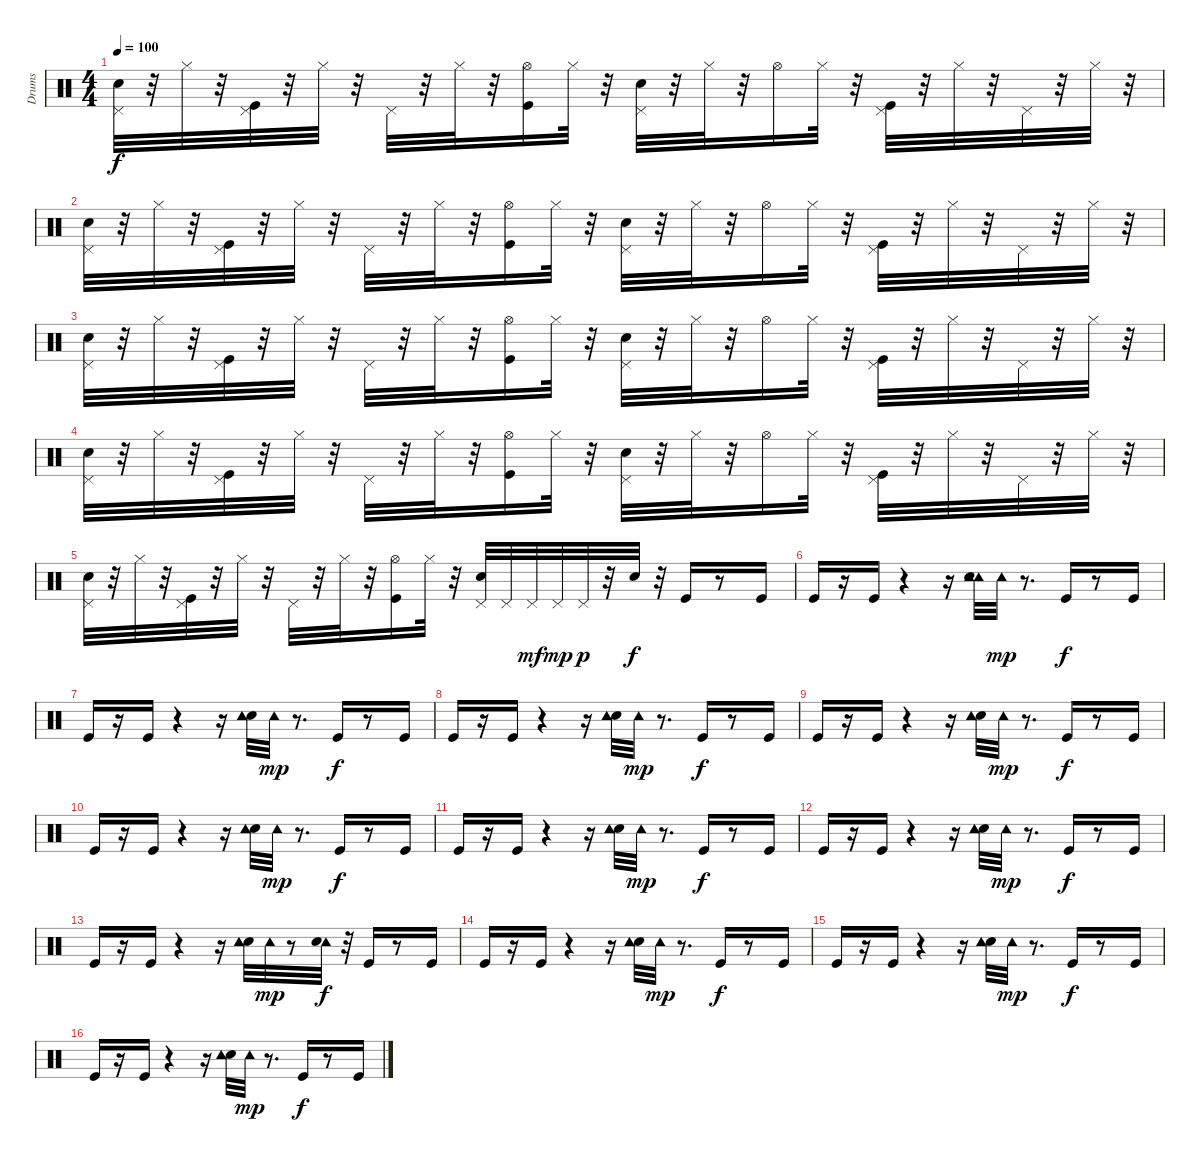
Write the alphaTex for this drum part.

\track ("Drums" "Drums") {instrument percussion}
\staff {score}
\articulation defaults
\ts (4 4)
\tempo 100
\clef neutral
\ks c
("Metronome (bell)" "Pedal Hi-Hat (hit)").32{dy f} r.32 "Hi-Hat (closed)".32 r.32 ("Pedal Hi-Hat (hit)" "Kick (hit)").32 r.32 "Hi-Hat (closed)".32 r.32 "Pedal Hi-Hat (hit)".32 r.32 "Hi-Hat (closed)".32 r.32 ("Kick (hit)" "Hi-Hat (open)").16 "Hi-Hat (closed)".32 r.32 ("Metronome (bell)" "Pedal Hi-Hat (hit)").32 r.32 "Hi-Hat (closed)".32 r.32 "Hi-Hat (open)".16 "Hi-Hat (closed)".32 r.32 ("Kick (hit)" "Pedal Hi-Hat (hit)").32 r.32 "Hi-Hat (closed)".32 r.32 "Pedal Hi-Hat (hit)".32 r.32 "Hi-Hat (closed)".32 r.32 |
("Pedal Hi-Hat (hit)" "Metronome (bell)").32 r.32 "Hi-Hat (closed)".32 r.32 ("Kick (hit)" "Pedal Hi-Hat (hit)").32 r.32 "Hi-Hat (closed)".32 r.32 "Pedal Hi-Hat (hit)".32 r.32 "Hi-Hat (closed)".32 r.32 ("Kick (hit)" "Hi-Hat (open)").16 "Hi-Hat (closed)".32 r.32 ("Pedal Hi-Hat (hit)" "Metronome (bell)").32 r.32 "Hi-Hat (closed)".32 r.32 "Hi-Hat (open)".16 "Hi-Hat (closed)".32 r.32 ("Pedal Hi-Hat (hit)" "Kick (hit)").32 r.32 "Hi-Hat (closed)".32 r.32 "Pedal Hi-Hat (hit)".32 r.32 "Hi-Hat (closed)".32 r.32 |
("Metronome (bell)" "Pedal Hi-Hat (hit)").32 r.32 "Hi-Hat (closed)".32 r.32 ("Kick (hit)" "Pedal Hi-Hat (hit)").32 r.32 "Hi-Hat (closed)".32 r.32 "Pedal Hi-Hat (hit)".32 r.32 "Hi-Hat (closed)".32 r.32 ("Kick (hit)" "Hi-Hat (open)").16 "Hi-Hat (closed)".32 r.32 ("Pedal Hi-Hat (hit)" "Metronome (bell)").32 r.32 "Hi-Hat (closed)".32 r.32 "Hi-Hat (open)".16 "Hi-Hat (closed)".32 r.32 ("Pedal Hi-Hat (hit)" "Kick (hit)").32 r.32 "Hi-Hat (closed)".32 r.32 "Pedal Hi-Hat (hit)".32 r.32 "Hi-Hat (closed)".32 r.32 |
("Pedal Hi-Hat (hit)" "Metronome (bell)").32 r.32 "Hi-Hat (closed)".32 r.32 ("Kick (hit)" "Pedal Hi-Hat (hit)").32 r.32 "Hi-Hat (closed)".32 r.32 "Pedal Hi-Hat (hit)".32 r.32 "Hi-Hat (closed)".32 r.32 ("Hi-Hat (open)" "Kick (hit)").16 "Hi-Hat (closed)".32 r.32 ("Metronome (bell)" "Pedal Hi-Hat (hit)").32 r.32 "Hi-Hat (closed)".32 r.32 "Hi-Hat (open)".16 "Hi-Hat (closed)".32 r.32 ("Kick (hit)" "Pedal Hi-Hat (hit)").32 r.32 "Hi-Hat (closed)".32 r.32 "Pedal Hi-Hat (hit)".32 r.32 "Hi-Hat (closed)".32 r.32 |
("Metronome (bell)" "Pedal Hi-Hat (hit)").32 r.32 "Hi-Hat (closed)".32 r.32 ("Kick (hit)" "Pedal Hi-Hat (hit)").32 r.32 "Hi-Hat (closed)".32 r.32 "Pedal Hi-Hat (hit)".32 r.32 "Hi-Hat (closed)".32 r.32 ("Hi-Hat (open)" "Kick (hit)").16 "Hi-Hat (closed)".32 r.32 ("Metronome (bell)" "Pedal Hi-Hat (hit)").32 "Pedal Hi-Hat (hit)".32 "Pedal Hi-Hat (hit)".32{dy mf} "Pedal Hi-Hat (hit)".32{dy mp} "Pedal Hi-Hat (hit)".32{dy p} r.32 "Metronome (bell)".32{dy f} r.32 "Kick (hit)".16 r.8 "Kick (hit)".16 |
"Kick (hit)".16 r.16 "Kick (hit)".16 r.4 r.16 ("Tambourine (hit)" "Metronome (bell)" "Tambourine (hit)").32 "Tambourine (hit)".32{dy mp} r.8{d} "Kick (hit)".16{dy f} r.8 "Kick (hit)".16 |
"Kick (hit)".16 r.16 "Kick (hit)".16 r.4 r.16 ("Metronome (bell)" "Tambourine (hit)" "Tambourine (hit)").32 "Tambourine (hit)".32{dy mp} r.8{d} "Kick (hit)".16{dy f} r.8 "Kick (hit)".16 |
"Kick (hit)".16 r.16 "Kick (hit)".16 r.4 r.16 ("Metronome (bell)" "Tambourine (hit)" "Tambourine (hit)").32 "Tambourine (hit)".32{dy mp} r.8{d} "Kick (hit)".16{dy f} r.8 "Kick (hit)".16 |
"Kick (hit)".16 r.16 "Kick (hit)".16 r.4 r.16 ("Metronome (bell)" "Tambourine (hit)" "Tambourine (hit)").32 "Tambourine (hit)".32{dy mp} r.8{d} "Kick (hit)".16{dy f} r.8 "Kick (hit)".16 |
"Kick (hit)".16 r.16 "Kick (hit)".16 r.4 r.16 ("Metronome (bell)" "Tambourine (hit)" "Tambourine (hit)").32 "Tambourine (hit)".32{dy mp} r.8{d} "Kick (hit)".16{dy f} r.8 "Kick (hit)".16 |
"Kick (hit)".16 r.16 "Kick (hit)".16 r.4 r.16 ("Metronome (bell)" "Tambourine (hit)" "Tambourine (hit)").32 "Tambourine (hit)".32{dy mp} r.8{d} "Kick (hit)".16{dy f} r.8 "Kick (hit)".16 |
"Kick (hit)".16 r.16 "Kick (hit)".16 r.4 r.16 ("Metronome (bell)" "Tambourine (hit)" "Tambourine (hit)").32 "Tambourine (hit)".32{dy mp} r.8{d} "Kick (hit)".16{dy f} r.8 "Kick (hit)".16 |
"Kick (hit)".16 r.16 "Kick (hit)".16 r.4 r.16 ("Metronome (bell)" "Tambourine (hit)" "Tambourine (hit)").32 "Tambourine (hit)".32{dy mp} r.8 ("Tambourine (hit)" "Metronome (bell)").32{dy f} r.32 "Kick (hit)".16 r.8 "Kick (hit)".16 |
"Kick (hit)".16 r.16 "Kick (hit)".16 r.4 r.16 ("Metronome (bell)" "Tambourine (hit)" "Tambourine (hit)").32 "Tambourine (hit)".32{dy mp} r.8{d} "Kick (hit)".16{dy f} r.8 "Kick (hit)".16 |
"Kick (hit)".16 r.16 "Kick (hit)".16 r.4 r.16 ("Metronome (bell)" "Tambourine (hit)" "Tambourine (hit)").32 "Tambourine (hit)".32{dy mp} r.8{d} "Kick (hit)".16{dy f} r.8 "Kick (hit)".16 |
"Kick (hit)".16 r.16 "Kick (hit)".16 r.4 r.16 ("Metronome (bell)" "Tambourine (hit)" "Tambourine (hit)").32 "Tambourine (hit)".32{dy mp} r.8{d} "Kick (hit)".16{dy f} r.8 "Kick (hit)".16
